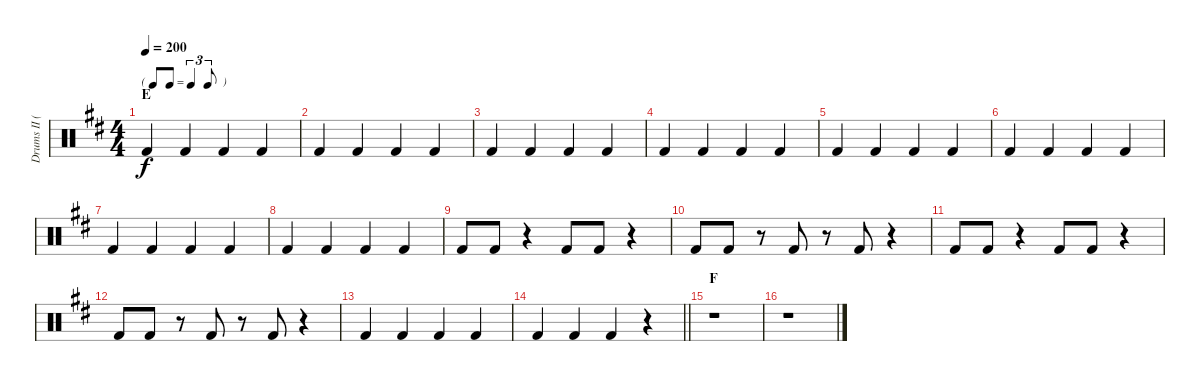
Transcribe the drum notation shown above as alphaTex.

\track ("Drums II (Ruka)" "Drums II (") {instrument percussion}
\staff {score}
\articulation defaults
\ts (4 4)
\tf triplet8th
\section ("" "E")
\tempo 200
\clef neutral
\ks d "Kick (hit) 2".4{dy f} "Kick (hit) 2".4 "Kick (hit) 2".4 "Kick (hit) 2".4
|
"Kick (hit) 2".4 "Kick (hit) 2".4 "Kick (hit) 2".4 "Kick (hit) 2".4 |
"Kick (hit) 2".4 "Kick (hit) 2".4 "Kick (hit) 2".4 "Kick (hit) 2".4 |
"Kick (hit) 2".4 "Kick (hit) 2".4 "Kick (hit) 2".4 "Kick (hit) 2".4 |
"Kick (hit) 2".4 "Kick (hit) 2".4 "Kick (hit) 2".4 "Kick (hit) 2".4 |
"Kick (hit) 2".4 "Kick (hit) 2".4 "Kick (hit) 2".4 "Kick (hit) 2".4 |
"Kick (hit) 2".4 "Kick (hit) 2".4 "Kick (hit) 2".4 "Kick (hit) 2".4 |
"Kick (hit) 2".4 "Kick (hit) 2".4 "Kick (hit) 2".4 "Kick (hit) 2".4 |
"Kick (hit) 2".8 "Kick (hit) 2".8 r.4 "Kick (hit) 2".8 "Kick (hit) 2".8 r.4 |
"Kick (hit) 2".8 "Kick (hit) 2".8 r.8 "Kick (hit) 2".8 r.8 "Kick (hit) 2".8 r.4 |
"Kick (hit) 2".8 "Kick (hit) 2".8 r.4 "Kick (hit) 2".8 "Kick (hit) 2".8 r.4 |
"Kick (hit) 2".8 "Kick (hit) 2".8 r.8 "Kick (hit) 2".8 r.8 "Kick (hit) 2".8 r.4 |
"Kick (hit) 2".4 "Kick (hit) 2".4 "Kick (hit) 2".4 "Kick (hit) 2".4 |
\barLineRight lightlight "Kick (hit) 2".4 "Kick (hit) 2".4 "Kick (hit) 2".4
r.4 |
\section ("" "F")
r.1 |
r.1
